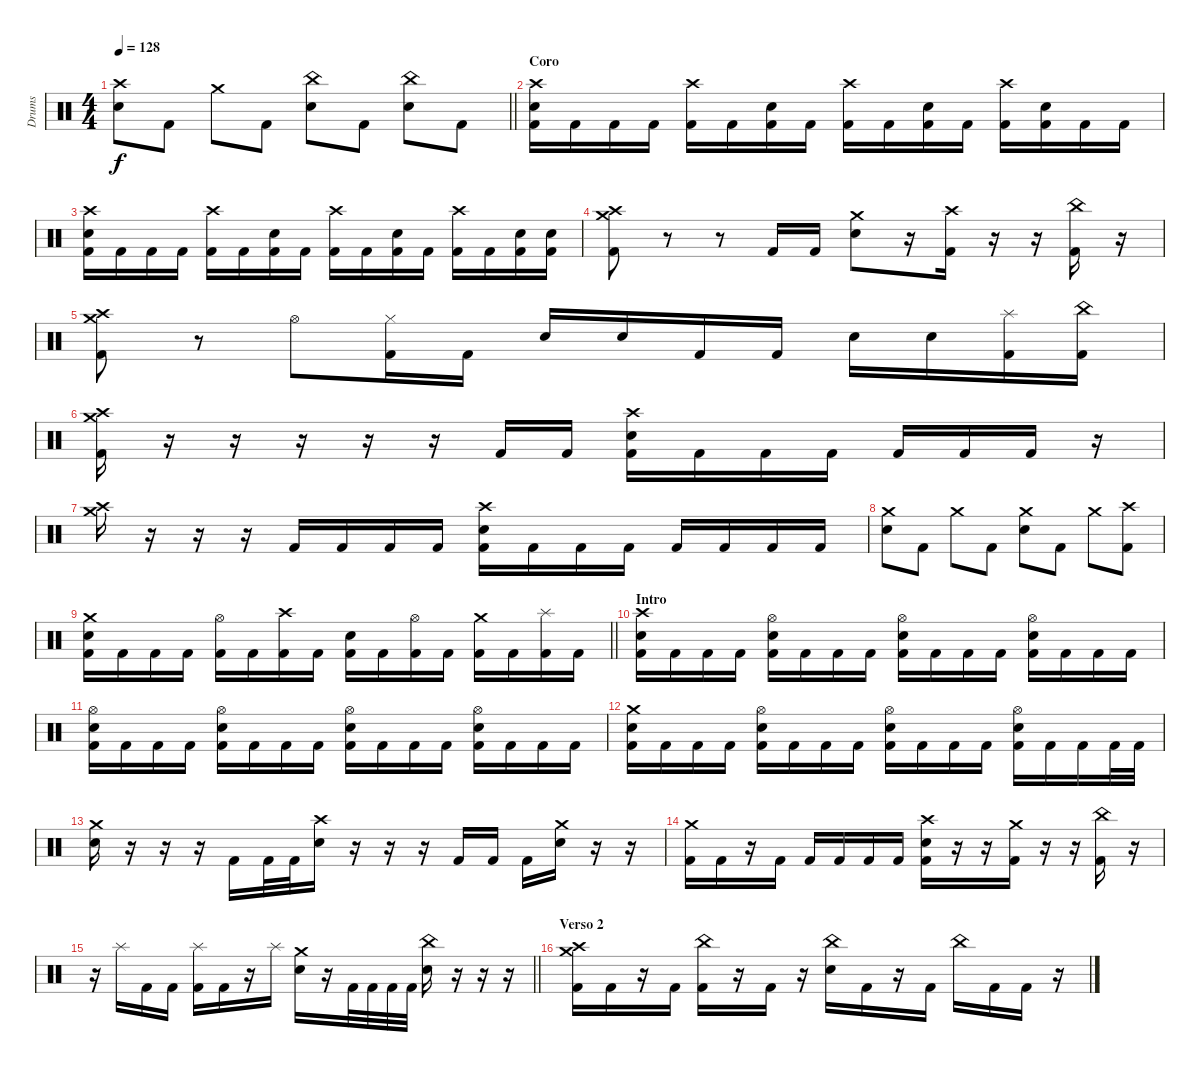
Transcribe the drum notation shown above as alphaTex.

\track ("Drums" "Drums") {instrument percussion}
\staff {score}
\articulation defaults
\ts (4 4)
\tempo 128
\clef neutral
\barLineRight lightlight
\ks c
("Crash high (hit)" "Electric Snare (hit)").8{dy f} "Kick (hit) 2".8 "Crash medium (hit)".8 "Kick (hit) 2".8 ("China (hit)" "Electric Snare (hit)").8 "Kick (hit) 2".8 ("China (hit)" "Electric Snare (hit)").8 "Kick (hit) 2".8 |
\section ("" "Coro")
("Crash high (hit)" "Electric Snare (hit)" "Kick (hit) 2").16 "Kick (hit) 2".16 "Kick (hit) 2".16 "Kick (hit) 2".16 ("Crash high (hit)" "Kick (hit) 2").16 "Kick (hit) 2".16 ("Electric Snare (hit)" "Kick (hit) 2").16 "Kick (hit) 2".16 ("Crash high (hit)" "Kick (hit) 2").16 "Kick (hit) 2".16 ("Electric Snare (hit)" "Kick (hit) 2").16 "Kick (hit) 2".16 ("Crash high (hit)" "Kick (hit) 2").16 ("Electric Snare (hit)" "Kick (hit) 2").16 "Kick (hit) 2".16 "Kick (hit) 2".16 |
("Crash high (hit)" "Electric Snare (hit)" "Kick (hit) 2").16 "Kick (hit) 2".16 "Kick (hit) 2".16 "Kick (hit) 2".16 ("Crash high (hit)" "Kick (hit) 2").16 "Kick (hit) 2".16 ("Electric Snare (hit)" "Kick (hit) 2").16 "Kick (hit) 2".16 ("Crash high (hit)" "Kick (hit) 2").16 "Kick (hit) 2".16 ("Electric Snare (hit)" "Kick (hit) 2").16 "Kick (hit) 2".16 ("Crash high (hit)" "Kick (hit) 2").16 "Kick (hit) 2".16 ("Electric Snare (hit)" "Kick (hit) 2").16 ("Electric Snare (hit)" "Kick (hit) 2").16 |
("Crash medium (hit)" "Crash high (hit)" "Kick (hit) 2").8 r.8 r.8 "Kick (hit) 2".16 "Kick (hit) 2".16 ("Crash medium (hit)" "Electric Snare (hit)").8 r.16 ("Crash high (hit)" "Kick (hit) 2").16 r.16 r.16 ("China (hit)" "Kick (hit) 2").16 r.16 |
("Crash medium (hit)" "Crash high (hit)" "Kick (hit) 2").8 r.8 "Hi-Hat (open)".8 ("Hi-Hat (closed)" "Kick (hit) 2").16 "Kick (hit) 2".16 "Electric Snare (hit)".16 "Electric Snare (hit)".16 "Kick (hit) 2".16 "Kick (hit) 2".16 "Electric Snare (hit)".16 "Electric Snare (hit)".16 ("Splash (hit)" "Kick (hit) 2").16 ("China (hit)" "Kick (hit) 2").16 |
("Crash high (hit)" "Crash medium (hit)" "Kick (hit) 2").16 r.16 r.16 r.16 r.16 r.16 "Kick (hit) 2".16 "Kick (hit) 2".16 ("Crash high (hit)" "Electric Snare (hit)" "Kick (hit) 2").16 "Kick (hit) 2".16 "Kick (hit) 2".16 "Kick (hit) 2".16 "Kick (hit) 2".16 "Kick (hit) 2".16 "Kick (hit) 2".16 r.16 |
("Crash high (hit)" "Crash medium (hit)").16 r.16 r.16 r.16 "Kick (hit) 2".16 "Kick (hit) 2".16 "Kick (hit) 2".16 "Kick (hit) 2".16 ("Crash high (hit)" "Electric Snare (hit)" "Kick (hit) 2").16 "Kick (hit) 2".16 "Kick (hit) 2".16 "Kick (hit) 2".16 "Kick (hit) 2".16 "Kick (hit) 2".16 "Kick (hit) 2".16 "Kick (hit) 2".16 |
("Crash medium (hit)" "Electric Snare (hit)").8 "Kick (hit) 2".8 "Crash medium (hit)".8 "Kick (hit) 2".8 ("Crash medium (hit)" "Electric Snare (hit)").8 "Kick (hit) 2".8 "Crash medium (hit)".8 ("Crash high (hit)" "Kick (hit) 2").8 |
\barLineRight lightlight
("Crash medium (hit)" "Electric Snare (hit)" "Kick (hit) 2").16 "Kick (hit) 2".16 "Kick (hit) 2".16 "Kick (hit) 2".16 ("Hi-Hat (open)" "Kick (hit) 2").16 "Kick (hit) 2".16 ("Crash high (hit)" "Kick (hit) 2").16 "Kick (hit) 2".16 ("Electric Snare (hit)" "Kick (hit) 2").16 "Kick (hit) 2".16 ("Hi-Hat (open)" "Kick (hit) 2").16 "Kick (hit) 2".16 ("Crash medium (hit)" "Kick (hit) 2").16 "Kick (hit) 2".16 ("Splash (hit)" "Kick (hit) 2").16 "Kick (hit) 2".16 |
\section ("" "Intro")
("Crash high (hit)" "Electric Snare (hit)" "Kick (hit) 2").16 "Kick (hit) 2".16 "Kick (hit) 2".16 "Kick (hit) 2".16 ("Hi-Hat (open)" "Electric Snare (hit)" "Kick (hit) 2").16 "Kick (hit) 2".16 "Kick (hit) 2".16 "Kick (hit) 2".16 ("Hi-Hat (open)" "Electric Snare (hit)" "Kick (hit) 2").16 "Kick (hit) 2".16 "Kick (hit) 2".16 "Kick (hit) 2".16 ("Hi-Hat (open)" "Electric Snare (hit)" "Kick (hit) 2").16 "Kick (hit) 2".16 "Kick (hit) 2".16 "Kick (hit) 2".16 |
("Hi-Hat (open)" "Electric Snare (hit)" "Kick (hit) 2").16 "Kick (hit) 2".16 "Kick (hit) 2".16 "Kick (hit) 2".16 ("Hi-Hat (open)" "Electric Snare (hit)" "Kick (hit) 2").16 "Kick (hit) 2".16 "Kick (hit) 2".16 "Kick (hit) 2".16 ("Hi-Hat (open)" "Electric Snare (hit)" "Kick (hit) 2").16 "Kick (hit) 2".16 "Kick (hit) 2".16 "Kick (hit) 2".16 ("Hi-Hat (open)" "Electric Snare (hit)" "Kick (hit) 2").16 "Kick (hit) 2".16 "Kick (hit) 2".16 "Kick (hit) 2".16 |
("Crash medium (hit)" "Electric Snare (hit)" "Kick (hit) 2").16 "Kick (hit) 2".16 "Kick (hit) 2".16 "Kick (hit) 2".16 ("Hi-Hat (open)" "Electric Snare (hit)" "Kick (hit) 2").16 "Kick (hit) 2".16 "Kick (hit) 2".16 "Kick (hit) 2".16 ("Hi-Hat (open)" "Electric Snare (hit)" "Kick (hit) 2").16 "Kick (hit) 2".16 "Kick (hit) 2".16 "Kick (hit) 2".16 ("Hi-Hat (open)" "Electric Snare (hit)" "Kick (hit) 2").16 "Kick (hit) 2".16 "Kick (hit) 2".16 "Kick (hit) 2".32 "Kick (hit) 2".32 |
("Crash medium (hit)" "Electric Snare (hit)").16 r.16 r.16 r.16 "Kick (hit) 2".16 "Kick (hit) 2".32 "Kick (hit) 2".32 ("Crash high (hit)" "Electric Snare (hit)").16 r.16 r.16 r.16 "Kick (hit) 2".16 "Kick (hit) 2".16 "Kick (hit) 2".16 ("Crash medium (hit)" "Electric Snare (hit)").16 r.16 r.16 |
("Crash medium (hit)" "Kick (hit) 2").16 "Kick (hit) 2".16 r.16 "Kick (hit) 2".16 "Kick (hit) 2".16 "Kick (hit) 2".16 "Kick (hit) 2".16 "Kick (hit) 2".16 ("Crash high (hit)" "Electric Snare (hit)" "Kick (hit) 2").16 r.16 r.16 ("Crash medium (hit)" "Kick (hit) 2").16 r.16 r.16 ("China (hit)" "Kick (hit) 2").16 r.16 |
\barLineRight lightlight
r.16 "Splash (hit)".16 "Kick (hit) 2".16 "Kick (hit) 2".16 ("Splash (hit)" "Kick (hit) 2").16 "Kick (hit) 2".16 r.16 "Splash (hit)".16 ("Crash medium (hit)" "Electric Snare (hit)").16 r.16 "Kick (hit) 2".32 "Kick (hit) 2".32 "Kick (hit) 2".32 "Kick (hit) 2".32 ("China (hit)" "Electric Snare (hit)").16 r.16 r.16 r.16 |
\section ("" "Verso 2")
("Crash medium (hit)" "Crash high (hit)" "Kick (hit) 2").16 "Kick (hit) 2".16 r.16 "Kick (hit) 2".16 ("China (hit)" "Kick (hit) 2").16 r.16 "Kick (hit) 2".16 r.16 ("China (hit)" "Electric Snare (hit)").16 "Kick (hit) 2".16 r.16 "Kick (hit) 2".16 "China (hit)".16 "Kick (hit) 2".16 "Kick (hit) 2".16 r.16
